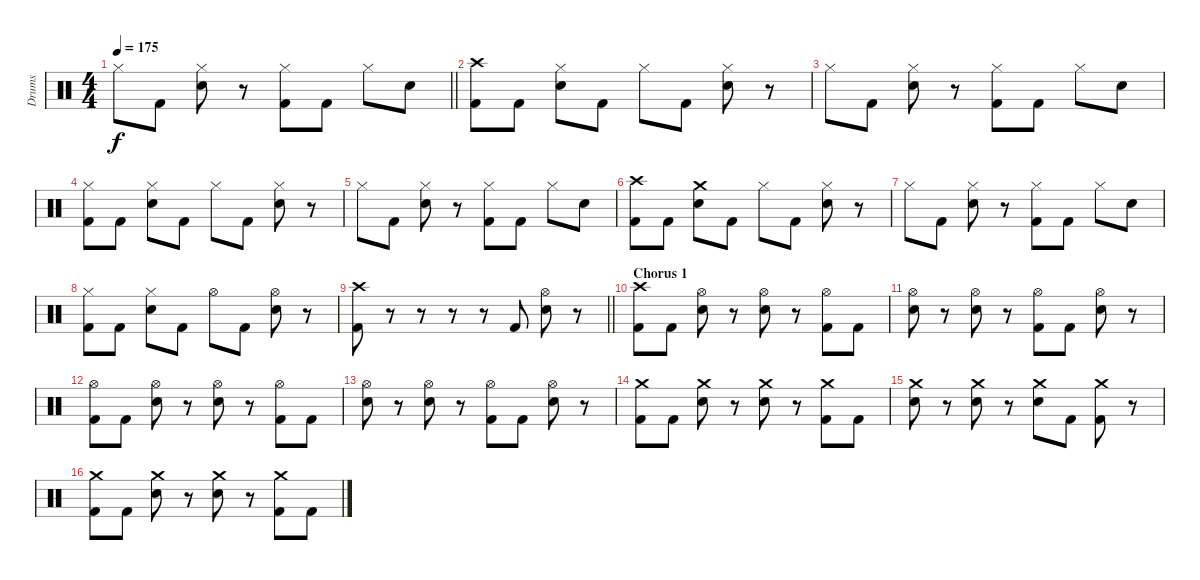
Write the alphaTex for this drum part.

\track ("Drums" "Drums") {instrument percussion}
\staff {score}
\articulation defaults
\ts (4 4)
\tempo 175
\clef neutral
\barLineRight lightlight
\ks c "Hi-Hat (closed)".8{dy f} "Kick (hit) 2".8
("Hi-Hat (closed)" "Snare (hit) 2").8 r.8 ("Hi-Hat (closed)" "Kick (hit) 2").8 "Kick (hit) 2".8 "Hi-Hat (closed)".8 "Snare (hit) 2".8 |
("Crash high (hit)" "Kick (hit) 2").8 "Kick (hit) 2".8 ("Hi-Hat (closed)" "Snare (hit) 2").8 "Kick (hit) 2".8 "Hi-Hat (closed)".8 "Kick (hit) 2".8 ("Hi-Hat (closed)" "Snare (hit) 2").8 r.8 |
"Hi-Hat (closed)".8 "Kick (hit) 2".8 ("Hi-Hat (closed)" "Snare (hit) 2").8 r.8 ("Hi-Hat (closed)" "Kick (hit) 2").8 "Kick (hit) 2".8 "Hi-Hat (closed)".8 "Snare (hit) 2".8 |
("Hi-Hat (closed)" "Kick (hit) 2").8 "Kick (hit) 2".8 ("Hi-Hat (closed)" "Snare (hit) 2").8 "Kick (hit) 2".8 "Hi-Hat (closed)".8 "Kick (hit) 2".8 ("Hi-Hat (closed)" "Snare (hit) 2").8 r.8 |
"Hi-Hat (closed)".8 "Kick (hit) 2".8 ("Hi-Hat (closed)" "Snare (hit) 2").8 r.8 ("Hi-Hat (closed)" "Kick (hit) 2").8 "Kick (hit) 2".8 "Hi-Hat (closed)".8 "Snare (hit) 2".8 |
("Crash high (hit)" "Kick (hit) 2").8 "Kick (hit) 2".8 ("Crash medium (hit)" "Snare (hit) 2").8 "Kick (hit) 2".8 "Hi-Hat (closed)".8 "Kick (hit) 2".8 ("Hi-Hat (closed)" "Snare (hit) 2").8 r.8 |
"Hi-Hat (closed)".8 "Kick (hit) 2".8 ("Hi-Hat (closed)" "Snare (hit) 2").8 r.8 ("Hi-Hat (closed)" "Kick (hit) 2").8 "Kick (hit) 2".8 "Hi-Hat (closed)".8 "Snare (hit) 2".8 |
("Hi-Hat (closed)" "Kick (hit) 2").8 "Kick (hit) 2".8 ("Hi-Hat (closed)" "Snare (hit) 2").8 "Kick (hit) 2".8 "Hi-Hat (open)".8 "Kick (hit) 2".8 ("Hi-Hat (open)" "Snare (hit) 2").8 r.8 |
\barLineRight lightlight
("Crash high (hit)" "Kick (hit) 2").8 r.8 r.8 r.8 r.8 "Kick (hit) 2".8 ("Hi-Hat (open)" "Snare (hit) 2").8 r.8 |
\section ("" "Chorus 1")
("Crash high (hit)" "Kick (hit) 2").8 "Kick (hit) 2".8 ("Hi-Hat (open)" "Snare (hit) 2").8 r.8 ("Hi-Hat (open)" "Snare (hit) 2").8 r.8 ("Hi-Hat (open)" "Kick (hit) 2").8 "Kick (hit) 2".8 |
("Hi-Hat (open)" "Snare (hit) 2").8 r.8 ("Hi-Hat (open)" "Snare (hit) 2").8 r.8 ("Hi-Hat (open)" "Kick (hit) 2").8 "Kick (hit) 2".8 ("Hi-Hat (open)" "Snare (hit) 2").8 r.8 |
("Hi-Hat (open)" "Kick (hit) 2").8 "Kick (hit) 2".8 ("Hi-Hat (open)" "Snare (hit) 2").8 r.8 ("Hi-Hat (open)" "Snare (hit) 2").8 r.8 ("Hi-Hat (open)" "Kick (hit) 2").8 "Kick (hit) 2".8 |
("Hi-Hat (open)" "Snare (hit) 2").8 r.8 ("Hi-Hat (open)" "Snare (hit) 2").8 r.8 ("Hi-Hat (open)" "Kick (hit) 2").8 "Kick (hit) 2".8 ("Hi-Hat (open)" "Snare (hit) 2").8 r.8 |
("Crash medium (hit)" "Kick (hit) 2").8 "Kick (hit) 2".8 ("Crash medium (hit)" "Snare (hit) 2").8 r.8 ("Crash medium (hit)" "Snare (hit) 2").8 r.8 ("Crash medium (hit)" "Kick (hit) 2").8 "Kick (hit) 2".8 |
("Crash medium (hit)" "Snare (hit) 2").8 r.8 ("Crash medium (hit)" "Snare (hit) 2").8 r.8 ("Crash medium (hit)" "Snare (hit) 2").8 "Kick (hit) 2".8 ("Crash medium (hit)" "Kick (hit) 2").8 r.8 |
("Crash medium (hit)" "Kick (hit) 2").8 "Kick (hit) 2".8 ("Crash medium (hit)" "Snare (hit) 2").8 r.8 ("Crash medium (hit)" "Snare (hit) 2").8 r.8 ("Crash medium (hit)" "Kick (hit) 2").8 "Kick (hit) 2".8
